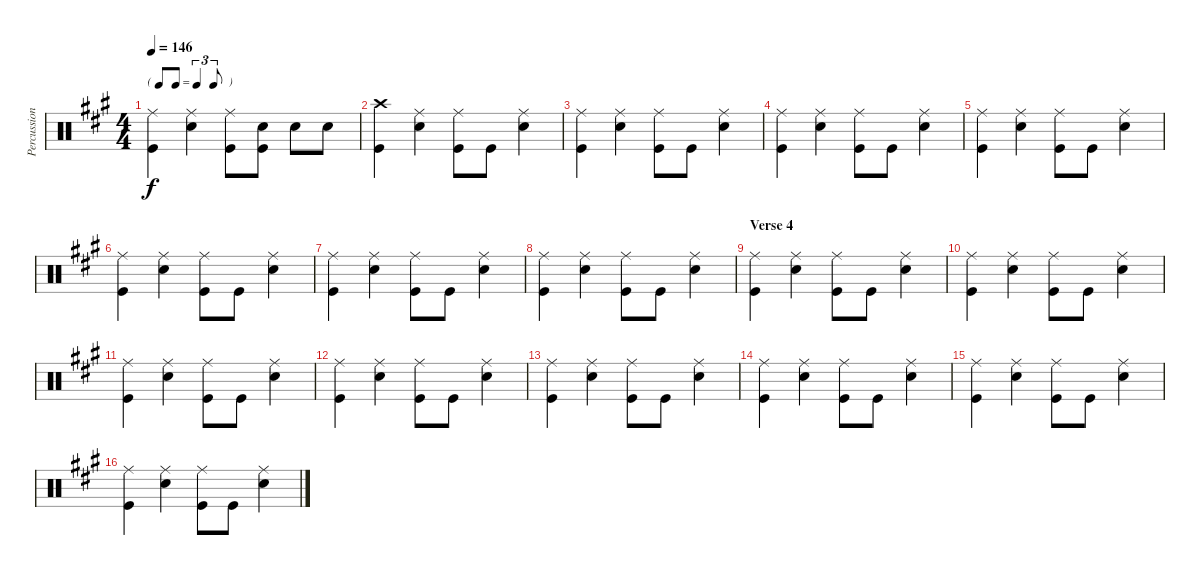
\track ("Percussion" "Percussion") {instrument percussion}
\staff {score}
\articulation defaults
\ts (4 4)
\tf triplet8th
\tempo 146
\clef neutral
\ks a
("Ride (middle)" "Kick (hit)").4{dy f} ("Ride (middle)" "Snare (hit) 2").4 ("Ride (middle)" "Kick (hit)").8 ("Snare (hit) 2" "Kick (hit)").8 "Snare (hit) 2".8 "Snare (hit) 2".8 |
("Crash high (hit)" "Kick (hit)").4 ("Ride (middle)" "Snare (hit) 2").4 ("Ride (middle)" "Kick (hit)").8 "Kick (hit)".8 ("Ride (middle)" "Snare (hit) 2").4 |
("Ride (middle)" "Kick (hit)").4 ("Ride (middle)" "Snare (hit) 2").4 ("Ride (middle)" "Kick (hit)").8 "Kick (hit)".8 ("Ride (middle)" "Snare (hit) 2").4 |
("Ride (middle)" "Kick (hit)").4 ("Ride (middle)" "Snare (hit) 2").4 ("Ride (middle)" "Kick (hit)").8 "Kick (hit)".8 ("Ride (middle)" "Snare (hit) 2").4 |
("Ride (middle)" "Kick (hit)").4 ("Ride (middle)" "Snare (hit) 2").4 ("Ride (middle)" "Kick (hit)").8 "Kick (hit)".8 ("Ride (middle)" "Snare (hit) 2").4 |
("Ride (middle)" "Kick (hit)").4 ("Ride (middle)" "Snare (hit) 2").4 ("Ride (middle)" "Kick (hit)").8 "Kick (hit)".8 ("Ride (middle)" "Snare (hit) 2").4 |
("Ride (middle)" "Kick (hit)").4 ("Ride (middle)" "Snare (hit) 2").4 ("Ride (middle)" "Kick (hit)").8 "Kick (hit)".8 ("Ride (middle)" "Snare (hit) 2").4 |
("Ride (middle)" "Kick (hit)").4 ("Ride (middle)" "Snare (hit) 2").4 ("Ride (middle)" "Kick (hit)").8 "Kick (hit)".8 ("Ride (middle)" "Snare (hit) 2").4 |
\section ("" "Verse 4")
("Ride (middle)" "Kick (hit)").4 ("Ride (middle)" "Snare (hit) 2").4 ("Ride (middle)" "Kick (hit)").8 "Kick (hit)".8 ("Ride (middle)" "Snare (hit) 2").4 |
("Ride (middle)" "Kick (hit)").4 ("Ride (middle)" "Snare (hit) 2").4 ("Ride (middle)" "Kick (hit)").8 "Kick (hit)".8 ("Ride (middle)" "Snare (hit) 2").4 |
("Ride (middle)" "Kick (hit)").4 ("Ride (middle)" "Snare (hit) 2").4 ("Ride (middle)" "Kick (hit)").8 "Kick (hit)".8 ("Ride (middle)" "Snare (hit) 2").4 |
("Ride (middle)" "Kick (hit)").4 ("Ride (middle)" "Snare (hit) 2").4 ("Ride (middle)" "Kick (hit)").8 "Kick (hit)".8 ("Ride (middle)" "Snare (hit) 2").4 |
("Ride (middle)" "Kick (hit)").4 ("Ride (middle)" "Snare (hit) 2").4 ("Ride (middle)" "Kick (hit)").8 "Kick (hit)".8 ("Ride (middle)" "Snare (hit) 2").4 |
("Ride (middle)" "Kick (hit)").4 ("Ride (middle)" "Snare (hit) 2").4 ("Ride (middle)" "Kick (hit)").8 "Kick (hit)".8 ("Ride (middle)" "Snare (hit) 2").4 |
("Ride (middle)" "Kick (hit)").4 ("Ride (middle)" "Snare (hit) 2").4 ("Ride (middle)" "Kick (hit)").8 "Kick (hit)".8 ("Ride (middle)" "Snare (hit) 2").4 |
("Ride (middle)" "Kick (hit)").4 ("Ride (middle)" "Snare (hit) 2").4 ("Ride (middle)" "Kick (hit)").8 "Kick (hit)".8 ("Ride (middle)" "Snare (hit) 2").4
